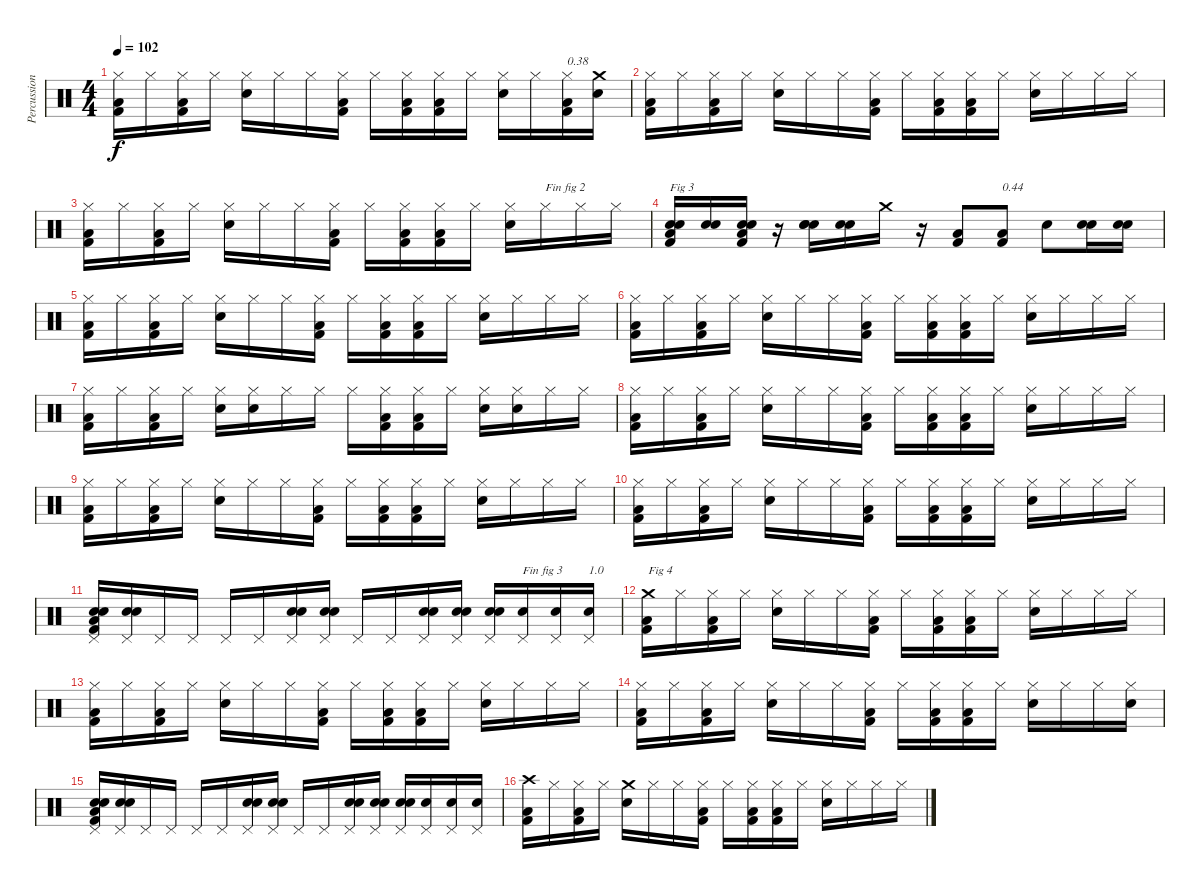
\track ("Percussions" "Percussion") {instrument percussion}
\staff {score}
\articulation defaults
\ts (4 4)
\tempo 102
\clef neutral
\ks c
("Kick (hit) 2" "Low Floor Tom (hit)" "Hi-Hat (closed)").16{dy f} "Hi-Hat (closed)".16 ("Kick (hit) 2" "Low Floor Tom (hit)" "Hi-Hat (closed)").16 "Hi-Hat (closed)".16 ("Snare (hit) 2" "Hi-Hat (closed)").16 "Hi-Hat (closed)".16 "Hi-Hat (closed)".16 ("Kick (hit) 2" "Low Floor Tom (hit)" "Hi-Hat (closed)").16 "Hi-Hat (closed)".16 ("Kick (hit) 2" "Low Floor Tom (hit)" "Hi-Hat (closed)").16 ("Kick (hit) 2" "Low Floor Tom (hit)" "Hi-Hat (closed)").16 "Hi-Hat (closed)".16 ("Snare (hit) 2" "Hi-Hat (closed)").16 "Hi-Hat (closed)".16 ("Kick (hit) 2" "Low Floor Tom (hit)" "Hi-Hat (closed)").16{txt "0.38"} ("Snare (hit) 2" "Crash medium (hit)").16 |
("Kick (hit) 2" "Low Floor Tom (hit)" "Hi-Hat (closed)").16 "Hi-Hat (closed)".16 ("Kick (hit) 2" "Low Floor Tom (hit)" "Hi-Hat (closed)").16 "Hi-Hat (closed)".16 ("Snare (hit) 2" "Hi-Hat (closed)").16 "Hi-Hat (closed)".16 "Hi-Hat (closed)".16 ("Kick (hit) 2" "Low Floor Tom (hit)" "Hi-Hat (closed)").16 "Hi-Hat (closed)".16 ("Kick (hit) 2" "Low Floor Tom (hit)" "Hi-Hat (closed)").16 ("Kick (hit) 2" "Low Floor Tom (hit)" "Hi-Hat (closed)").16 "Hi-Hat (closed)".16 ("Snare (hit) 2" "Hi-Hat (closed)").16 "Hi-Hat (closed)".16 "Hi-Hat (closed)".16 "Hi-Hat (closed)".16 |
("Kick (hit) 2" "Low Floor Tom (hit)" "Hi-Hat (closed)").16 "Hi-Hat (closed)".16 ("Kick (hit) 2" "Low Floor Tom (hit)" "Hi-Hat (closed)").16 "Hi-Hat (closed)".16 ("Snare (hit) 2" "Hi-Hat (closed)").16 "Hi-Hat (closed)".16 "Hi-Hat (closed)".16 ("Kick (hit) 2" "Low Floor Tom (hit)" "Hi-Hat (closed)").16 "Hi-Hat (closed)".16 ("Kick (hit) 2" "Low Floor Tom (hit)" "Hi-Hat (closed)").16 ("Kick (hit) 2" "Low Floor Tom (hit)" "Hi-Hat (closed)").16 "Hi-Hat (closed)".16 ("Snare (hit) 2" "Hi-Hat (closed)").16 "Hi-Hat (closed)".16{txt "Fin fig 2"} "Hi-Hat (closed)".16 "Hi-Hat (closed)".16 |
("Electric Snare (hit)" "Hand Clap (hit)" "Low Floor Tom (hit)" "Kick (hit) 2").16{txt "Fig 3"} ("Electric Snare (hit)" "Hand Clap (hit)").16 ("Electric Snare (hit)" "Hand Clap (hit)" "Low Floor Tom (hit)" "Kick (hit) 2").16 r.16 ("Snare (hit) 2" "Hand Clap (hit)" "Electric Snare (hit)").16 ("Electric Snare (hit)" "Hand Clap (hit)").16 "Crash medium (hit)".16 r.16 ("Kick (hit) 2" "Low Floor Tom (hit)").8 ("Kick (hit) 2" "Low Floor Tom (hit)").8{txt "0.44"} "Snare (hit) 2".8 ("Electric Snare (hit)" "Hand Clap (hit)").16 ("Electric Snare (hit)" "Hand Clap (hit)").16 |
("Kick (hit) 2" "Low Floor Tom (hit)" "Hi-Hat (closed)").16 "Hi-Hat (closed)".16 ("Kick (hit) 2" "Low Floor Tom (hit)" "Hi-Hat (closed)").16 "Hi-Hat (closed)".16 ("Snare (hit) 2" "Hi-Hat (closed)").16 "Hi-Hat (closed)".16 "Hi-Hat (closed)".16 ("Kick (hit) 2" "Low Floor Tom (hit)" "Hi-Hat (closed)").16 "Hi-Hat (closed)".16 ("Kick (hit) 2" "Low Floor Tom (hit)" "Hi-Hat (closed)").16 ("Kick (hit) 2" "Low Floor Tom (hit)" "Hi-Hat (closed)").16 "Hi-Hat (closed)".16 ("Snare (hit) 2" "Hi-Hat (closed)").16 "Hi-Hat (closed)".16 "Hi-Hat (closed)".16 "Hi-Hat (closed)".16 |
("Kick (hit) 2" "Low Floor Tom (hit)" "Hi-Hat (closed)").16 "Hi-Hat (closed)".16 ("Kick (hit) 2" "Low Floor Tom (hit)" "Hi-Hat (closed)").16 "Hi-Hat (closed)".16 ("Snare (hit) 2" "Hi-Hat (closed)").16 "Hi-Hat (closed)".16 "Hi-Hat (closed)".16 ("Kick (hit) 2" "Low Floor Tom (hit)" "Hi-Hat (closed)").16 "Hi-Hat (closed)".16 ("Kick (hit) 2" "Low Floor Tom (hit)" "Hi-Hat (closed)").16 ("Kick (hit) 2" "Low Floor Tom (hit)" "Hi-Hat (closed)").16 "Hi-Hat (closed)".16 ("Snare (hit) 2" "Hi-Hat (closed)").16 "Hi-Hat (closed)".16 "Hi-Hat (closed)".16 "Hi-Hat (closed)".16 |
("Kick (hit) 2" "Low Floor Tom (hit)" "Hi-Hat (closed)").16 "Hi-Hat (closed)".16 ("Kick (hit) 2" "Low Floor Tom (hit)" "Hi-Hat (closed)").16 "Hi-Hat (closed)".16 ("Snare (hit) 2" "Hi-Hat (closed)").16 ("Snare (hit) 2" "Hi-Hat (closed)").16 "Hi-Hat (closed)".16 "Hi-Hat (closed)".16 "Hi-Hat (closed)".16 ("Kick (hit) 2" "Low Floor Tom (hit)" "Hi-Hat (closed)").16 ("Kick (hit) 2" "Low Floor Tom (hit)" "Hi-Hat (closed)").16 "Hi-Hat (closed)".16 ("Snare (hit) 2" "Hi-Hat (closed)").16 ("Snare (hit) 2" "Hi-Hat (closed)").16 "Hi-Hat (closed)".16 "Hi-Hat (closed)".16 |
("Kick (hit) 2" "Low Floor Tom (hit)" "Hi-Hat (closed)").16 "Hi-Hat (closed)".16 ("Kick (hit) 2" "Low Floor Tom (hit)" "Hi-Hat (closed)").16 "Hi-Hat (closed)".16 ("Snare (hit) 2" "Hi-Hat (closed)").16 "Hi-Hat (closed)".16 "Hi-Hat (closed)".16 ("Kick (hit) 2" "Low Floor Tom (hit)" "Hi-Hat (closed)").16 "Hi-Hat (closed)".16 ("Kick (hit) 2" "Low Floor Tom (hit)" "Hi-Hat (closed)").16 ("Kick (hit) 2" "Low Floor Tom (hit)" "Hi-Hat (closed)").16 "Hi-Hat (closed)".16 ("Snare (hit) 2" "Hi-Hat (closed)").16 "Hi-Hat (closed)".16 "Hi-Hat (closed)".16 "Hi-Hat (closed)".16 |
("Kick (hit) 2" "Low Floor Tom (hit)" "Hi-Hat (closed)").16 "Hi-Hat (closed)".16 ("Kick (hit) 2" "Low Floor Tom (hit)" "Hi-Hat (closed)").16 "Hi-Hat (closed)".16 ("Snare (hit) 2" "Hi-Hat (closed)").16 "Hi-Hat (closed)".16 "Hi-Hat (closed)".16 ("Kick (hit) 2" "Low Floor Tom (hit)" "Hi-Hat (closed)").16 "Hi-Hat (closed)".16 ("Kick (hit) 2" "Low Floor Tom (hit)" "Hi-Hat (closed)").16 ("Kick (hit) 2" "Low Floor Tom (hit)" "Hi-Hat (closed)").16 "Hi-Hat (closed)".16 ("Snare (hit) 2" "Hi-Hat (closed)").16 "Hi-Hat (closed)".16 "Hi-Hat (closed)".16 "Hi-Hat (closed)".16 |
("Kick (hit) 2" "Low Floor Tom (hit)" "Hi-Hat (closed)").16 "Hi-Hat (closed)".16 ("Kick (hit) 2" "Low Floor Tom (hit)" "Hi-Hat (closed)").16 "Hi-Hat (closed)".16 ("Snare (hit) 2" "Hi-Hat (closed)").16 "Hi-Hat (closed)".16 "Hi-Hat (closed)".16 ("Kick (hit) 2" "Low Floor Tom (hit)" "Hi-Hat (closed)").16 "Hi-Hat (closed)".16 ("Kick (hit) 2" "Low Floor Tom (hit)" "Hi-Hat (closed)").16 ("Kick (hit) 2" "Low Floor Tom (hit)" "Hi-Hat (closed)").16 "Hi-Hat (closed)".16 ("Snare (hit) 2" "Hi-Hat (closed)").16 "Hi-Hat (closed)".16 "Hi-Hat (closed)".16 "Hi-Hat (closed)".16 |
("Kick (hit) 2" "Low Floor Tom (hit)" "Electric Snare (hit)" "Hand Clap (hit)" "Pedal Hi-Hat (hit)").16 ("Electric Snare (hit)" "Hand Clap (hit)" "Pedal Hi-Hat (hit)").16 "Pedal Hi-Hat (hit)".16 "Pedal Hi-Hat (hit)".16 "Pedal Hi-Hat (hit)".16 "Pedal Hi-Hat (hit)".16 ("Electric Snare (hit)" "Hand Clap (hit)" "Pedal Hi-Hat (hit)").16 ("Electric Snare (hit)" "Hand Clap (hit)" "Pedal Hi-Hat (hit)").16 "Pedal Hi-Hat (hit)".16 "Pedal Hi-Hat (hit)".16 ("Electric Snare (hit)" "Hand Clap (hit)" "Pedal Hi-Hat (hit)").16 ("Electric Snare (hit)" "Hand Clap (hit)" "Pedal Hi-Hat (hit)").16 ("Electric Snare (hit)" "Hand Clap (hit)" "Pedal Hi-Hat (hit)").16 ("Snare (hit) 2" "Pedal Hi-Hat (hit)").16{txt "Fin fig 3"} ("Snare (hit) 2" "Pedal Hi-Hat (hit)").16 ("Snare (hit) 2" "Pedal Hi-Hat (hit)").16{txt "1.0"} |
("Kick (hit) 2" "Low Floor Tom (hit)" "Crash medium (hit)").16{txt "Fig 4"} "Hi-Hat (closed)".16 ("Kick (hit) 2" "Low Floor Tom (hit)" "Hi-Hat (closed)").16 "Hi-Hat (closed)".16 ("Snare (hit) 2" "Hi-Hat (closed)").16 "Hi-Hat (closed)".16 "Hi-Hat (closed)".16 ("Kick (hit) 2" "Low Floor Tom (hit)" "Hi-Hat (closed)").16 "Hi-Hat (closed)".16 ("Kick (hit) 2" "Low Floor Tom (hit)" "Hi-Hat (closed)").16 ("Kick (hit) 2" "Low Floor Tom (hit)" "Hi-Hat (closed)").16 "Hi-Hat (closed)".16 ("Snare (hit) 2" "Hi-Hat (closed)").16 "Hi-Hat (closed)".16 "Hi-Hat (closed)".16 "Hi-Hat (closed)".16 |
("Kick (hit) 2" "Low Floor Tom (hit)" "Hi-Hat (closed)").16 "Hi-Hat (closed)".16 ("Kick (hit) 2" "Low Floor Tom (hit)" "Hi-Hat (closed)").16 "Hi-Hat (closed)".16 ("Snare (hit) 2" "Hi-Hat (closed)").16 "Hi-Hat (closed)".16 "Hi-Hat (closed)".16 ("Kick (hit) 2" "Low Floor Tom (hit)" "Hi-Hat (closed)").16 "Hi-Hat (closed)".16 ("Kick (hit) 2" "Low Floor Tom (hit)" "Hi-Hat (closed)").16 ("Kick (hit) 2" "Low Floor Tom (hit)" "Hi-Hat (closed)").16 "Hi-Hat (closed)".16 ("Snare (hit) 2" "Hi-Hat (closed)").16 "Hi-Hat (closed)".16 "Hi-Hat (closed)".16 "Hi-Hat (closed)".16 |
("Kick (hit) 2" "Low Floor Tom (hit)" "Hi-Hat (closed)").16 "Hi-Hat (closed)".16 ("Kick (hit) 2" "Low Floor Tom (hit)" "Hi-Hat (closed)").16 "Hi-Hat (closed)".16 ("Snare (hit) 2" "Hi-Hat (closed)").16 "Hi-Hat (closed)".16 "Hi-Hat (closed)".16 ("Kick (hit) 2" "Low Floor Tom (hit)" "Hi-Hat (closed)").16 "Hi-Hat (closed)".16 ("Kick (hit) 2" "Low Floor Tom (hit)" "Hi-Hat (closed)").16 ("Kick (hit) 2" "Low Floor Tom (hit)" "Hi-Hat (closed)").16 "Hi-Hat (closed)".16 ("Snare (hit) 2" "Hi-Hat (closed)").16 "Hi-Hat (closed)".16 "Hi-Hat (closed)".16 ("Snare (hit) 2" "Hi-Hat (closed)").16 |
("Kick (hit) 2" "Low Floor Tom (hit)" "Electric Snare (hit)" "Hand Clap (hit)" "Pedal Hi-Hat (hit)").16 ("Electric Snare (hit)" "Hand Clap (hit)" "Pedal Hi-Hat (hit)").16 "Pedal Hi-Hat (hit)".16 "Pedal Hi-Hat (hit)".16 "Pedal Hi-Hat (hit)".16 "Pedal Hi-Hat (hit)".16 ("Electric Snare (hit)" "Hand Clap (hit)" "Pedal Hi-Hat (hit)").16 ("Electric Snare (hit)" "Hand Clap (hit)" "Pedal Hi-Hat (hit)").16 "Pedal Hi-Hat (hit)".16 "Pedal Hi-Hat (hit)".16 ("Electric Snare (hit)" "Hand Clap (hit)" "Pedal Hi-Hat (hit)").16 ("Electric Snare (hit)" "Hand Clap (hit)" "Pedal Hi-Hat (hit)").16 ("Electric Snare (hit)" "Hand Clap (hit)" "Pedal Hi-Hat (hit)").16 ("Snare (hit) 2" "Pedal Hi-Hat (hit)").16 ("Snare (hit) 2" "Pedal Hi-Hat (hit)").16 ("Snare (hit) 2" "Pedal Hi-Hat (hit)").16 |
("Kick (hit) 2" "Low Floor Tom (hit)" "Crash high (hit)").16 "Hi-Hat (closed)".16 ("Kick (hit) 2" "Low Floor Tom (hit)" "Hi-Hat (closed)").16 "Hi-Hat (closed)".16 ("Snare (hit) 2" "Crash medium (hit)").16 "Hi-Hat (closed)".16 "Hi-Hat (closed)".16 ("Kick (hit) 2" "Low Floor Tom (hit)" "Hi-Hat (closed)").16 "Hi-Hat (closed)".16 ("Kick (hit) 2" "Low Floor Tom (hit)" "Hi-Hat (closed)").16 ("Kick (hit) 2" "Low Floor Tom (hit)" "Hi-Hat (closed)").16 "Hi-Hat (closed)".16 ("Snare (hit) 2" "Hi-Hat (closed)").16 "Hi-Hat (closed)".16 "Hi-Hat (closed)".16 "Hi-Hat (closed)".16
